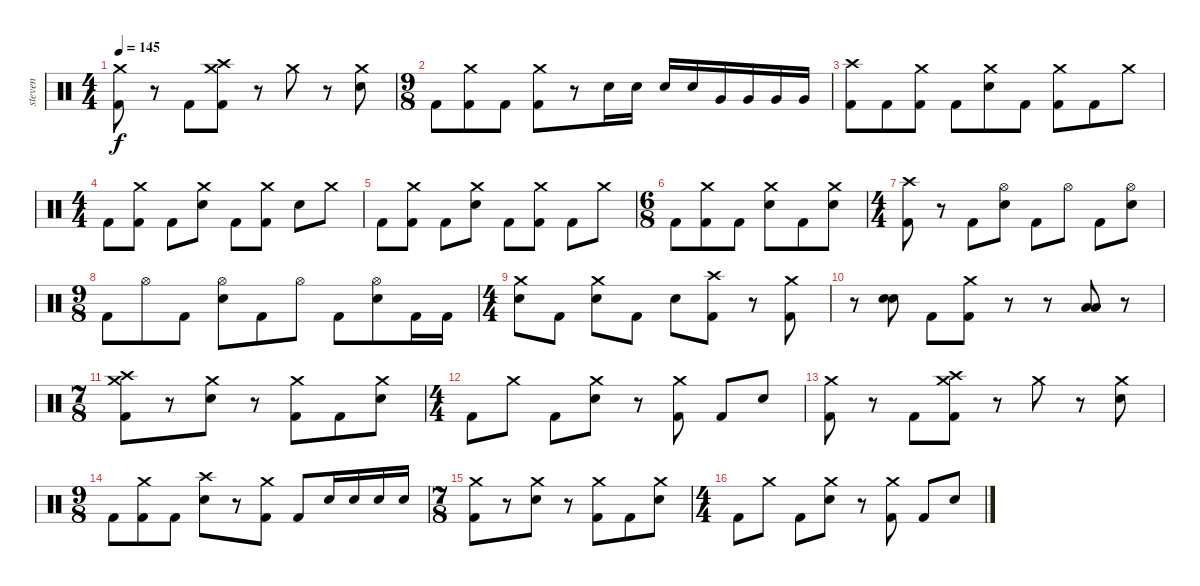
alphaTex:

\track ("steven" "steven") {instrument percussion}
\staff {score}
\articulation defaults
\ts (4 4)
\tempo 145
\clef neutral
\ks c
("Crash medium (hit)" "Kick (hit) 2").8{dy f} r.8 "Kick (hit) 2".8 ("Crash medium (hit)" "Crash high (hit)" "Kick (hit) 2").8 r.8 "Crash medium (hit)".8 r.8 ("Crash medium (hit)" "Electric Snare (hit)").8 |
\ts (9 8)
"Kick (hit) 2".8 ("Crash medium (hit)" "Kick (hit) 2").8 "Kick (hit) 2".8 ("Crash medium (hit)" "Kick (hit) 2").8 r.8 "Electric Snare (hit)".16 "Electric Snare (hit)".16 "Electric Snare (hit)".16 "Electric Snare (hit)".16 "Very Low Tom (hit)".16 "Very Low Tom (hit)".16 "Very Low Tom (hit)".16 "Very Low Tom (hit)".16 |
("Crash high (hit)" "Kick (hit) 2").8 "Kick (hit) 2".8 ("Crash medium (hit)" "Kick (hit) 2").8 "Kick (hit) 2".8 ("Crash medium (hit)" "Electric Snare (hit)").8 "Kick (hit) 2".8 ("Crash medium (hit)" "Kick (hit) 2").8 "Kick (hit) 2".8 "Crash medium (hit)".8 |
\ts (4 4)
"Kick (hit) 2".8 ("Crash medium (hit)" "Kick (hit) 2").8 "Kick (hit) 2".8 ("Crash medium (hit)" "Electric Snare (hit)").8 "Kick (hit) 2".8 ("Crash medium (hit)" "Kick (hit) 2").8 "Electric Snare (hit)".8 "Crash medium (hit)".8 |
"Kick (hit) 2".8 ("Crash medium (hit)" "Kick (hit) 2").8 "Kick (hit) 2".8 ("Crash medium (hit)" "Electric Snare (hit)").8 "Kick (hit) 2".8 ("Crash medium (hit)" "Kick (hit) 2").8 "Kick (hit) 2".8 "Crash medium (hit)".8 |
\ts (6 8)
"Kick (hit) 2".8 ("Crash medium (hit)" "Kick (hit) 2").8 "Kick (hit) 2".8 ("Crash medium (hit)" "Electric Snare (hit)").8 "Kick (hit) 2".8 ("Crash medium (hit)" "Electric Snare (hit)").8 |
\ts (4 4)
("Crash high (hit)" "Kick (hit) 2").8 r.8 "Kick (hit) 2".8 ("Hi-Hat (open)" "Electric Snare (hit)").8 "Kick (hit) 2".8 "Hi-Hat (open)".8 "Kick (hit) 2".8 ("Hi-Hat (open)" "Electric Snare (hit)").8 |
\ts (9 8)
"Kick (hit) 2".8 "Hi-Hat (open)".8 "Kick (hit) 2".8 ("Hi-Hat (open)" "Electric Snare (hit)").8 "Kick (hit) 2".8 "Hi-Hat (open)".8 "Kick (hit) 2".8 ("Hi-Hat (open)" "Electric Snare (hit)").8 "Kick (hit) 2".16 "Kick (hit) 2".16 |
\ts (4 4)
("Crash medium (hit)" "Electric Snare (hit)").8 "Kick (hit) 2".8 ("Crash medium (hit)" "Electric Snare (hit)").8 "Kick (hit) 2".8 "Electric Snare (hit)".8 ("Crash high (hit)" "Kick (hit) 2").8 r.8 ("Crash medium (hit)" "Kick (hit) 2").8 |
r.8 ("Electric Snare (hit)" "Electric Snare (hit)").8 "Kick (hit) 2".8 ("Crash medium (hit)" "Kick (hit) 2").8 r.8 r.8 ("Low Floor Tom (hit)" "Low Floor Tom (hit)").8 r.8 |
\ts (7 8)
("Crash medium (hit)" "Crash high (hit)" "Kick (hit) 2").8 r.8 ("Crash medium (hit)" "Electric Snare (hit)").8 r.8 ("Crash medium (hit)" "Kick (hit) 2").8 "Kick (hit) 2".8 ("Crash medium (hit)" "Electric Snare (hit)").8 |
\ts (4 4)
"Kick (hit) 2".8 "Crash medium (hit)".8 "Kick (hit) 2".8 ("Crash medium (hit)" "Electric Snare (hit)").8 r.8 ("Crash medium (hit)" "Kick (hit) 2").8 "Kick (hit) 2".8 "Electric Snare (hit)".8 |
("Crash medium (hit)" "Kick (hit) 2").8 r.8 "Kick (hit) 2".8 ("Crash medium (hit)" "Crash high (hit)" "Kick (hit) 2").8 r.8 "Crash medium (hit)".8 r.8 ("Crash medium (hit)" "Electric Snare (hit)").8 |
\ts (9 8)
"Kick (hit) 2".8 ("Crash medium (hit)" "Kick (hit) 2").8 "Kick (hit) 2".8 ("Crash high (hit)" "Electric Snare (hit)").8 r.8 ("Crash medium (hit)" "Kick (hit) 2").8 "Kick (hit) 2".8 "Electric Snare (hit)".16 "Electric Snare (hit)".16 "Electric Snare (hit)".16 "Electric Snare (hit)".16 |
\ts (7 8)
("Crash medium (hit)" "Kick (hit) 2").8 r.8 ("Crash medium (hit)" "Electric Snare (hit)").8 r.8 ("Crash medium (hit)" "Kick (hit) 2").8 "Kick (hit) 2".8 ("Crash medium (hit)" "Electric Snare (hit)").8 |
\ts (4 4)
"Kick (hit) 2".8 "Crash medium (hit)".8 "Kick (hit) 2".8 ("Crash medium (hit)" "Electric Snare (hit)").8 r.8 ("Crash medium (hit)" "Kick (hit) 2").8 "Kick (hit) 2".8 "Electric Snare (hit)".8
